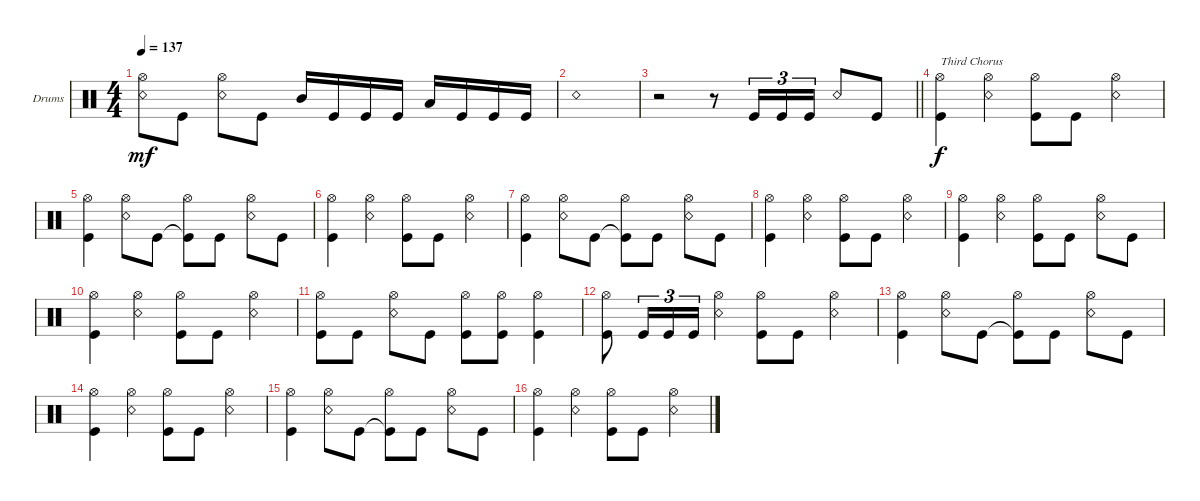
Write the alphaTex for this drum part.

\defaultSystemsLayout 4
\bracketExtendMode groupsimilarinstruments
\firstSystemTrackNameOrientation horizontal
\otherSystemsTrackNameOrientation horizontal
\track ("Drums" "Drums") {instrument percussion}
\staff {score}
\articulation defaults
\ts (4 4)
\tempo 137
\clef neutral
\scale
0.333333
\ks c
("Snare (rim shot)" "Hi-Hat (open)").8{dy mf} "Kick (hit)".8 ("Snare (rim shot)" "Hi-Hat (open)").8 "Kick (hit)".8 "Mid Tom (hit)".16 "Kick (hit)".16 "Kick (hit)".16 "Kick (hit)".16 "Low Tom (hit)".16 "Kick (hit)".16 "Kick (hit)".16 "Kick (hit)".16 |
\scale
0.333333 "Snare (rim shot)".1 |
\scale
0.333333
\barLineRight lightlight
r.2 r.8 "Kick (hit)".16{tu (3 2)} "Kick (hit)".16{tu (3 2)} "Kick (hit)".16{tu (3 2)} "Snare (rim shot)".8 "Kick (hit)".8 |
\scale
0.333333 ("Kick (hit)" "Hi-Hat (open)").4{txt "Third Chorus" dy f} ("Snare (rim shot)" "Hi-Hat (open)").4 ("Kick (hit)" "Hi-Hat (open)").8 "Kick (hit)".8 ("Snare (rim shot)" "Hi-Hat (open)").4 |
\scale
0.333333 ("Kick (hit)" "Hi-Hat (open)").4 ("Snare (rim shot)" "Hi-Hat (open)").8 "Kick (hit)".8 ("Kick (hit)"{t} "Hi-Hat (open)").8 "Kick (hit)".8 ("Snare (rim shot)" "Hi-Hat (open)").8 "Kick (hit)".8 |
\scale
0.333333 ("Kick (hit)" "Hi-Hat (open)").4 ("Snare (rim shot)" "Hi-Hat (open)").4 ("Kick (hit)" "Hi-Hat (open)").8 "Kick (hit)".8 ("Snare (rim shot)" "Hi-Hat (open)").4 |
\scale
0.333333 ("Kick (hit)" "Hi-Hat (open)").4 ("Snare (rim shot)" "Hi-Hat (open)").8 "Kick (hit)".8 ("Kick (hit)"{t} "Hi-Hat (open)").8 "Kick (hit)".8 ("Snare (rim shot)" "Hi-Hat (open)").8 "Kick (hit)".8 |
\scale
0.333333 ("Kick (hit)" "Hi-Hat (open)").4 ("Snare (rim shot)" "Hi-Hat (open)").4 ("Kick (hit)" "Hi-Hat (open)").8 "Kick (hit)".8 ("Snare (rim shot)" "Hi-Hat (open)").4 |
\scale
0.333333 ("Kick (hit)" "Hi-Hat (open)").4 ("Snare (rim shot)" "Hi-Hat (open)").4 ("Kick (hit)" "Hi-Hat (open)").8 "Kick (hit)".8 ("Snare (rim shot)" "Hi-Hat (open)").8 "Kick (hit)".8 |
\scale
0.333333 ("Kick (hit)" "Hi-Hat (open)").4 ("Snare (rim shot)" "Hi-Hat (open)").4 ("Kick (hit)" "Hi-Hat (open)").8 "Kick (hit)".8 ("Snare (rim shot)" "Hi-Hat (open)").4 |
\scale
0.333333 ("Kick (hit)" "Hi-Hat (open)").8 "Kick (hit)".8 ("Snare (rim shot)" "Hi-Hat (open)").8 "Kick (hit)".8 ("Kick (hit)" "Hi-Hat (open)").8 ("Kick (hit)" "Hi-Hat (open)").8 ("Kick (hit)" "Hi-Hat (open)").4 |
\scale
0.333333 ("Kick (hit)" "Hi-Hat (open)").8 "Kick (hit)".16{tu (3 2)} "Kick (hit)".16{tu (3 2)} "Kick (hit)".16{tu (3 2)} ("Snare (rim shot)" "Hi-Hat (open)").4 ("Kick (hit)" "Hi-Hat (open)").8 "Kick (hit)".8 ("Snare (rim shot)" "Hi-Hat (open)").4 |
\scale
0.333333 ("Kick (hit)" "Hi-Hat (open)").4 ("Snare (rim shot)" "Hi-Hat (open)").8 "Kick (hit)".8 ("Kick (hit)"{t} "Hi-Hat (open)").8 "Kick (hit)".8 ("Snare (rim shot)" "Hi-Hat (open)").8 "Kick (hit)".8 |
\scale
0.333333 ("Kick (hit)" "Hi-Hat (open)").4 ("Snare (rim shot)" "Hi-Hat (open)").4 ("Kick (hit)" "Hi-Hat (open)").8 "Kick (hit)".8 ("Snare (rim shot)" "Hi-Hat (open)").4 |
\scale
0.333333 ("Kick (hit)" "Hi-Hat (open)").4 ("Snare (rim shot)" "Hi-Hat (open)").8 "Kick (hit)".8 ("Kick (hit)"{t} "Hi-Hat (open)").8 "Kick (hit)".8 ("Snare (rim shot)" "Hi-Hat (open)").8 "Kick (hit)".8 |
\scale
0.333333 ("Kick (hit)" "Hi-Hat (open)").4 ("Snare (rim shot)" "Hi-Hat (open)").4 ("Kick (hit)" "Hi-Hat (open)").8 "Kick (hit)".8 ("Snare (rim shot)" "Hi-Hat (open)").4
